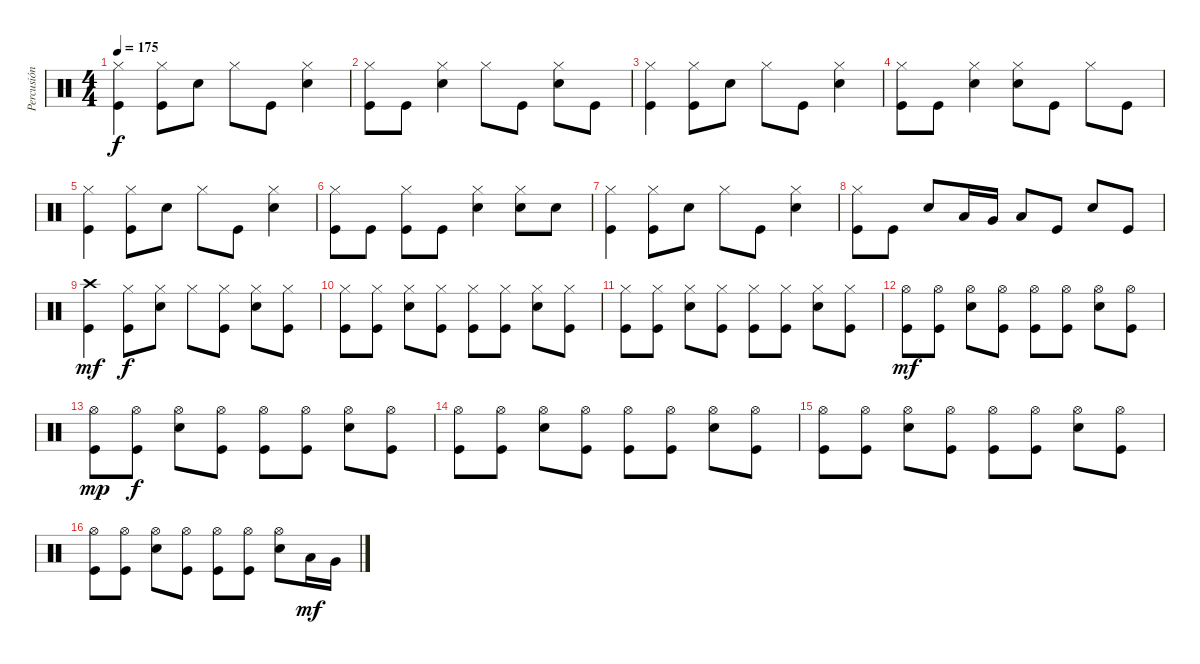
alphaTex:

\track ("Percusión" "Percusión") {instrument percussion}
\staff {score}
\articulation defaults
\ts (4 4)
\tempo 175
\clef neutral
\ks c
("Kick (hit)" "Hi-Hat (closed)").4{dy f} ("Kick (hit)" "Hi-Hat (closed)").8 "Snare (hit) 2".8 "Hi-Hat (closed)".8 "Kick (hit)".8 ("Snare (hit) 2" "Hi-Hat (closed)").4 |
("Kick (hit)" "Hi-Hat (closed)").8 "Kick (hit)".8 ("Snare (hit) 2" "Hi-Hat (closed)").4 "Hi-Hat (closed)".8 "Kick (hit)".8 ("Snare (hit) 2" "Hi-Hat (closed)").8 "Kick (hit)".8 |
("Kick (hit)" "Hi-Hat (closed)").4 ("Kick (hit)" "Hi-Hat (closed)").8 "Snare (hit) 2".8 "Hi-Hat (closed)".8 "Kick (hit)".8 ("Snare (hit) 2" "Hi-Hat (closed)").4 |
("Kick (hit)" "Hi-Hat (closed)").8 "Kick (hit)".8 ("Snare (hit) 2" "Hi-Hat (closed)").4 ("Snare (hit) 2" "Hi-Hat (closed)").8 "Kick (hit)".8 "Hi-Hat (closed)".8 "Kick (hit)".8 |
("Kick (hit)" "Hi-Hat (closed)").4 ("Kick (hit)" "Hi-Hat (closed)").8 "Snare (hit) 2".8 "Hi-Hat (closed)".8 "Kick (hit)".8 ("Snare (hit) 2" "Hi-Hat (closed)").4 |
("Kick (hit)" "Hi-Hat (closed)").8 "Kick (hit)".8 ("Kick (hit)" "Hi-Hat (closed)").8 "Kick (hit)".8 ("Snare (hit) 2" "Hi-Hat (closed)").4 ("Snare (hit) 2" "Hi-Hat (closed)").8 "Snare (hit) 2".8 |
("Kick (hit)" "Hi-Hat (closed)").4 ("Kick (hit)" "Hi-Hat (closed)").8 "Snare (hit) 2".8 "Hi-Hat (closed)".8 "Kick (hit)".8 ("Snare (hit) 2" "Hi-Hat (closed)").4 |
("Kick (hit)" "Hi-Hat (closed)").8 "Kick (hit)".8 "Snare (hit) 2".8 "Low Tom (hit)".16 "Very Low Tom (hit)".16 "Low Floor Tom (hit)".8 "Kick (hit)".8 "Snare (hit) 2".8 "Kick (hit)".8 |
("Kick (hit)" "Crash high (hit)").4{dy mf} ("Kick (hit)" "Hi-Hat (closed)").8{dy f} ("Snare (hit) 2" "Hi-Hat (closed)").8 "Hi-Hat (closed)".8 ("Kick (hit)" "Hi-Hat (closed)").8 ("Snare (hit) 2" "Hi-Hat (closed)").8 ("Kick (hit)" "Hi-Hat (closed)").8 |
("Kick (hit)" "Hi-Hat (closed)").8 ("Kick (hit)" "Hi-Hat (closed)").8 ("Snare (hit) 2" "Hi-Hat (closed)").8 ("Kick (hit)" "Hi-Hat (closed)").8 ("Kick (hit)" "Hi-Hat (closed)").8 ("Kick (hit)" "Hi-Hat (closed)").8 ("Snare (hit) 2" "Hi-Hat (closed)").8 ("Kick (hit)" "Hi-Hat (closed)").8 |
("Kick (hit)" "Hi-Hat (closed)").8 ("Kick (hit)" "Hi-Hat (closed)").8 ("Snare (hit) 2" "Hi-Hat (closed)").8 ("Kick (hit)" "Hi-Hat (closed)").8 ("Kick (hit)" "Hi-Hat (closed)").8 ("Kick (hit)" "Hi-Hat (closed)").8 ("Snare (hit) 2" "Hi-Hat (closed)").8 ("Kick (hit)" "Hi-Hat (closed)").8 |
("Kick (hit)" "Hi-Hat (open)").8{dy mf} ("Kick (hit)" "Hi-Hat (open)").8 ("Snare (hit) 2" "Hi-Hat (open)").8 ("Kick (hit)" "Hi-Hat (open)").8 ("Kick (hit)" "Hi-Hat (open)").8 ("Kick (hit)" "Hi-Hat (open)").8 ("Snare (hit) 2" "Hi-Hat (open)").8 ("Kick (hit)" "Hi-Hat (open)").8 |
("Kick (hit)" "Hi-Hat (open)").8{dy mp} ("Kick (hit)" "Hi-Hat (open)").8{dy f} ("Snare (hit) 2" "Hi-Hat (open)").8 ("Kick (hit)" "Hi-Hat (open)").8 ("Kick (hit)" "Hi-Hat (open)").8 ("Kick (hit)" "Hi-Hat (open)").8 ("Snare (hit) 2" "Hi-Hat (open)").8 ("Kick (hit)" "Hi-Hat (open)").8 |
("Kick (hit)" "Hi-Hat (open)").8 ("Kick (hit)" "Hi-Hat (open)").8 ("Snare (hit) 2" "Hi-Hat (open)").8 ("Kick (hit)" "Hi-Hat (open)").8 ("Kick (hit)" "Hi-Hat (open)").8 ("Kick (hit)" "Hi-Hat (open)").8 ("Snare (hit) 2" "Hi-Hat (open)").8 ("Kick (hit)" "Hi-Hat (open)").8 |
("Kick (hit)" "Hi-Hat (open)").8 ("Kick (hit)" "Hi-Hat (open)").8 ("Snare (hit) 2" "Hi-Hat (open)").8 ("Kick (hit)" "Hi-Hat (open)").8 ("Kick (hit)" "Hi-Hat (open)").8 ("Kick (hit)" "Hi-Hat (open)").8 ("Snare (hit) 2" "Hi-Hat (open)").8 ("Kick (hit)" "Hi-Hat (open)").8 |
("Kick (hit)" "Hi-Hat (open)").8 ("Kick (hit)" "Hi-Hat (open)").8 ("Snare (hit) 2" "Hi-Hat (open)").8 ("Kick (hit)" "Hi-Hat (open)").8 ("Kick (hit)" "Hi-Hat (open)").8 ("Kick (hit)" "Hi-Hat (open)").8 ("Snare (hit) 2" "Hi-Hat (open)").8 "Low Tom (hit)".16{dy mf} "Very Low Tom (hit)".16
